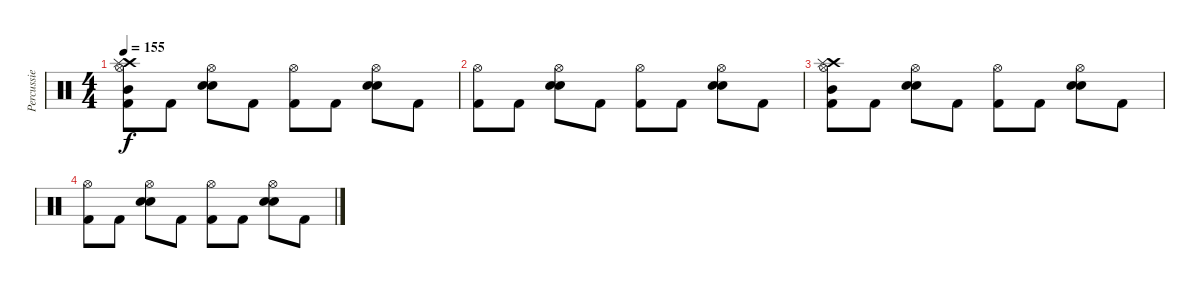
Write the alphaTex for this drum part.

\track ("Percussie" "Percussie") {instrument percussion}
\staff {score}
\articulation defaults
\ts (4 4)
\tempo 155
\clef neutral
\ks c
("Hi-Hat (open)" "Crash high (hit)" "Splash (hit)" "Mid Tom (hit)" "Kick (hit) 2").8{dy f} "Kick (hit) 2".8 ("Hi-Hat (open)" "Electric Snare (hit)" "Snare (hit) 2").8 "Kick (hit) 2".8 ("Hi-Hat (open)" "Kick (hit) 2").8 "Kick (hit) 2".8 ("Hi-Hat (open)" "Electric Snare (hit)" "Snare (hit) 2").8 "Kick (hit) 2".8 |
("Hi-Hat (open)" "Kick (hit) 2").8 "Kick (hit) 2".8 ("Hi-Hat (open)" "Electric Snare (hit)" "Snare (hit) 2").8 "Kick (hit) 2".8 ("Hi-Hat (open)" "Kick (hit) 2").8 "Kick (hit) 2".8 ("Hi-Hat (open)" "Electric Snare (hit)" "Snare (hit) 2").8 "Kick (hit) 2".8 |
("Hi-Hat (open)" "Crash high (hit)" "Splash (hit)" "Mid Tom (hit)" "Kick (hit) 2").8 "Kick (hit) 2".8 ("Hi-Hat (open)" "Electric Snare (hit)" "Snare (hit) 2").8 "Kick (hit) 2".8 ("Hi-Hat (open)" "Kick (hit) 2").8 "Kick (hit) 2".8 ("Hi-Hat (open)" "Electric Snare (hit)" "Snare (hit) 2").8 "Kick (hit) 2".8 |
("Hi-Hat (open)" "Kick (hit) 2").8 "Kick (hit) 2".8 ("Hi-Hat (open)" "Electric Snare (hit)" "Snare (hit) 2").8 "Kick (hit) 2".8 ("Hi-Hat (open)" "Kick (hit) 2").8 "Kick (hit) 2".8 ("Hi-Hat (open)" "Electric Snare (hit)" "Snare (hit) 2").8 "Kick (hit) 2".8
